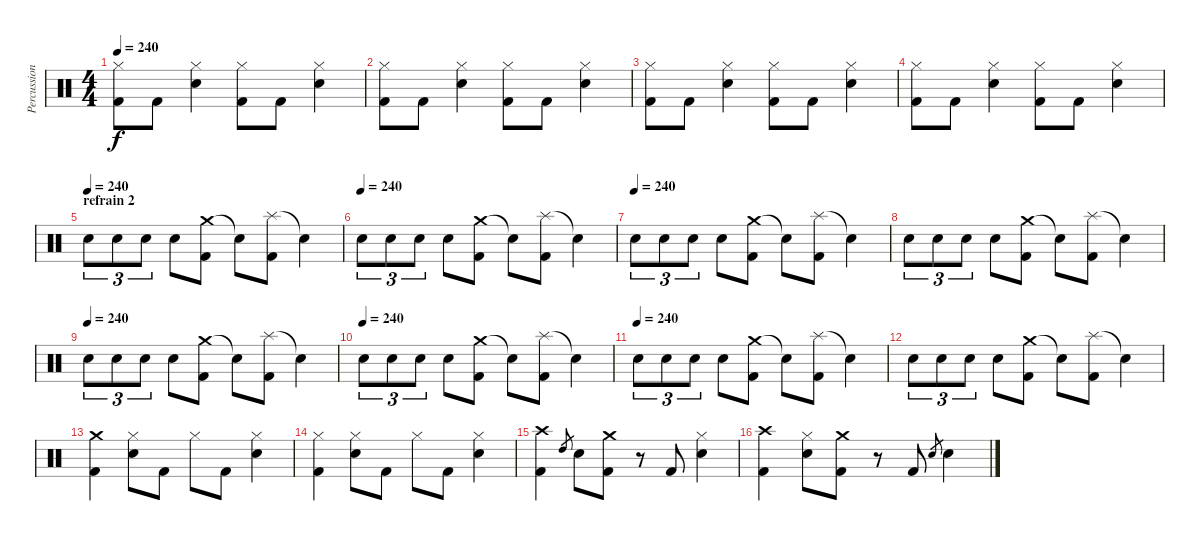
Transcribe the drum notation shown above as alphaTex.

\track ("Percussions" "Percussion") {instrument percussion}
\staff {score}
\articulation defaults
\ts (4 4)
\tempo 240
\clef neutral
\ks c
("Hi-Hat (closed)" "Kick (hit) 2").8{dy f} "Kick (hit) 2".8 ("Hi-Hat (closed)" "Electric Snare (hit)").4 ("Hi-Hat (closed)" "Kick (hit) 2").8 "Kick (hit) 2".8 ("Hi-Hat (closed)" "Electric Snare (hit)").4 |
("Hi-Hat (closed)" "Kick (hit) 2").8 "Kick (hit) 2".8 ("Hi-Hat (closed)" "Electric Snare (hit)").4 ("Hi-Hat (closed)" "Kick (hit) 2").8 "Kick (hit) 2".8 ("Hi-Hat (closed)" "Electric Snare (hit)").4 |
("Hi-Hat (closed)" "Kick (hit) 2").8 "Kick (hit) 2".8 ("Hi-Hat (closed)" "Electric Snare (hit)").4 ("Hi-Hat (closed)" "Kick (hit) 2").8 "Kick (hit) 2".8 ("Hi-Hat (closed)" "Electric Snare (hit)").4 |
("Hi-Hat (closed)" "Kick (hit) 2").8 "Kick (hit) 2".8 ("Hi-Hat (closed)" "Electric Snare (hit)").4 ("Hi-Hat (closed)" "Kick (hit) 2").8 "Kick (hit) 2".8 ("Hi-Hat (closed)" "Electric Snare (hit)").4 |
\section ("" "refrain 2")
\tempo (240)
"Electric Snare (hit)".8{tu (3 2)} "Electric Snare (hit)".8{tu (3 2)} "Electric Snare (hit)".8{tu (3 2)} "Electric Snare (hit)".8 ("Crash medium (hit)" "Kick (hit) 2").8 "Snare (hit)"{t}.8 ("Splash (hit)" "Kick (hit) 2").8 "Snare (hit)"{t}.4 |
\tempo (240)
"Electric Snare (hit)".8{tu (3 2)} "Electric Snare (hit)".8{tu (3 2)} "Electric Snare (hit)".8{tu (3 2)} "Electric Snare (hit)".8 ("Crash medium (hit)" "Kick (hit) 2").8 "Snare (hit)"{t}.8 ("Splash (hit)" "Kick (hit) 2").8 "Snare (hit)"{t}.4 |
\tempo (240)
"Electric Snare (hit)".8{tu (3 2)} "Electric Snare (hit)".8{tu (3 2)} "Electric Snare (hit)".8{tu (3 2)} "Electric Snare (hit)".8 ("Crash medium (hit)" "Kick (hit) 2").8 "Snare (hit)"{t}.8 ("Splash (hit)" "Kick (hit) 2").8 "Snare (hit)"{t}.4 |
"Electric Snare (hit)".8{tu (3 2)} "Electric Snare (hit)".8{tu (3 2)} "Electric Snare (hit)".8{tu (3 2)} "Electric Snare (hit)".8 ("Crash medium (hit)" "Kick (hit) 2").8 "Snare (hit)"{t}.8 ("Splash (hit)" "Kick (hit) 2").8 "Snare (hit)"{t}.4 |
\tempo (240)
"Electric Snare (hit)".8{tu (3 2)} "Electric Snare (hit)".8{tu (3 2)} "Electric Snare (hit)".8{tu (3 2)} "Electric Snare (hit)".8 ("Crash medium (hit)" "Kick (hit) 2").8 "Snare (hit)"{t}.8 ("Splash (hit)" "Kick (hit) 2").8 "Snare (hit)"{t}.4 |
\tempo (240)
"Electric Snare (hit)".8{tu (3 2)} "Electric Snare (hit)".8{tu (3 2)} "Electric Snare (hit)".8{tu (3 2)} "Electric Snare (hit)".8 ("Crash medium (hit)" "Kick (hit) 2").8 "Snare (hit)"{t}.8 ("Splash (hit)" "Kick (hit) 2").8 "Snare (hit)"{t}.4 |
\tempo (240)
"Electric Snare (hit)".8{tu (3 2)} "Electric Snare (hit)".8{tu (3 2)} "Electric Snare (hit)".8{tu (3 2)} "Electric Snare (hit)".8 ("Crash medium (hit)" "Kick (hit) 2").8 "Snare (hit)"{t}.8 ("Splash (hit)" "Kick (hit) 2").8 "Snare (hit)"{t}.4 |
"Electric Snare (hit)".8{tu (3 2)} "Electric Snare (hit)".8{tu (3 2)} "Electric Snare (hit)".8{tu (3 2)} "Electric Snare (hit)".8 ("Crash medium (hit)" "Kick (hit) 2").8 "Snare (hit)"{t}.8 ("Splash (hit)" "Kick (hit) 2").8 "Snare (hit)"{t}.4 |
("Crash medium (hit)" "Kick (hit) 2").4 ("Hi-Hat (closed)" "Electric Snare (hit)").8 "Kick (hit) 2".8 "Hi-Hat (closed)".8 "Kick (hit) 2".8 ("Hi-Hat (closed)" "Electric Snare (hit)").4 |
("Hi-Hat (closed)" "Kick (hit) 2").4 ("Hi-Hat (closed)" "Electric Snare (hit)").8 "Kick (hit) 2".8 "Hi-Hat (closed)".8 "Kick (hit) 2".8 ("Hi-Hat (closed)" "Electric Snare (hit)").4 |
("Crash high (hit)" "Kick (hit) 2").4 "High Tom (hit)".8{gr} "Electric Snare (hit)".8 ("Crash medium (hit)" "Kick (hit) 2").8 r.8 "Kick (hit) 2".8 ("Hi-Hat (closed)" "Electric Snare (hit)").4 |
("Crash high (hit)" "Kick (hit) 2").4 ("Hi-Hat (closed)" "Electric Snare (hit)").8 ("Crash medium (hit)" "Kick (hit) 2").8 r.8 "Kick (hit) 2".8 "Electric Snare (hit)".8{gr} "Electric Snare (hit)".4
